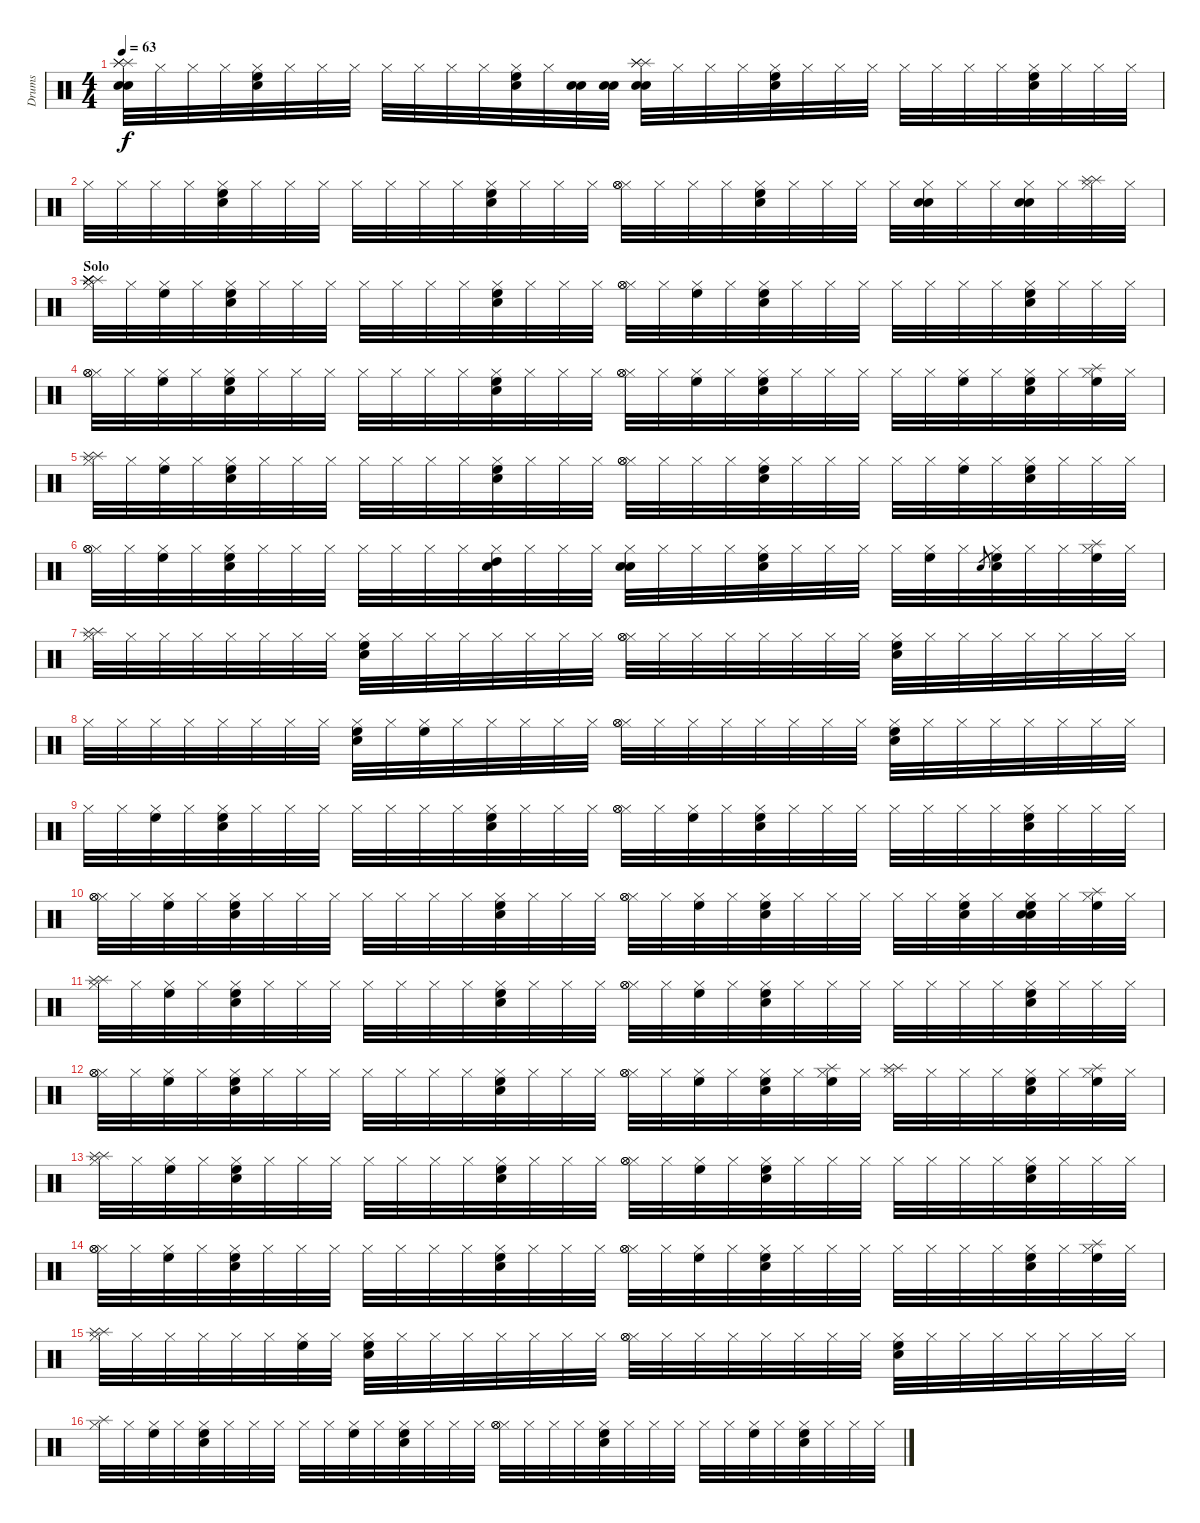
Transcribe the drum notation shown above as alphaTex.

\track ("Drums" "Drums") {instrument percussion}
\staff {score}
\articulation defaults
\ts (4 4)
\tempo 63
\clef neutral
\ks c
("Snare (hit) 2" "Snare (hit) 2" "Splash (hit)" "Splash (hit)" "Splash (hit)").32{dy f} "Hi-Hat (closed)".32 "Hi-Hat (closed)".32 "Hi-Hat (closed)".32 ("Hi-Hat (closed)" "Snare (hit) 2" "High Floor Tom (hit)").32 "Hi-Hat (closed)".32 "Hi-Hat (closed)".32 "Hi-Hat (closed)".32 "Hi-Hat (closed)".32 "Hi-Hat (closed)".32 "Hi-Hat (closed)".32 "Hi-Hat (closed)".32 ("Hi-Hat (closed)" "Snare (hit) 2" "High Floor Tom (hit)").32 "Hi-Hat (closed)".32 ("Snare (hit) 2" "Snare (hit) 2").32 ("Snare (hit) 2" "Snare (hit) 2").32 ("Snare (hit) 2" "Snare (hit) 2" "Splash (hit)" "Splash (hit)" "Splash (hit)").32 "Hi-Hat (closed)".32 "Hi-Hat (closed)".32 "Hi-Hat (closed)".32 ("Hi-Hat (closed)" "Snare (hit) 2" "High Floor Tom (hit)").32 "Hi-Hat (closed)".32 "Hi-Hat (closed)".32 "Hi-Hat (closed)".32 "Hi-Hat (closed)".32 "Hi-Hat (closed)".32 "Hi-Hat (closed)".32 "Hi-Hat (closed)".32 ("Hi-Hat (closed)" "Snare (hit) 2" "High Floor Tom (hit)").32 "Hi-Hat (closed)".32 "Hi-Hat (closed)".32 "Hi-Hat (closed)".32 |
"Hi-Hat (closed)".32 "Hi-Hat (closed)".32 "Hi-Hat (closed)".32 "Hi-Hat (closed)".32 ("Hi-Hat (closed)" "Snare (hit) 2" "High Floor Tom (hit)").32 "Hi-Hat (closed)".32 "Hi-Hat (closed)".32 "Hi-Hat (closed)".32 "Hi-Hat (closed)".32 "Hi-Hat (closed)".32 "Hi-Hat (closed)".32 "Hi-Hat (closed)".32 ("Hi-Hat (closed)" "Snare (hit) 2" "High Floor Tom (hit)").32 "Hi-Hat (closed)".32 "Hi-Hat (closed)".32 "Hi-Hat (closed)".32 ("Hi-Hat (closed)" "Hi-Hat (open)" "Hi-Hat (open)").32 "Hi-Hat (closed)".32 "Hi-Hat (closed)".32 "Hi-Hat (closed)".32 ("Hi-Hat (closed)" "Snare (hit) 2" "High Floor Tom (hit)").32 "Hi-Hat (closed)".32 "Hi-Hat (closed)".32 "Hi-Hat (closed)".32 "Hi-Hat (closed)".32 ("Hi-Hat (closed)" "Snare (hit) 2" "Snare (hit) 2").32 "Hi-Hat (closed)".32 "Hi-Hat (closed)".32 ("Hi-Hat (closed)" "Snare (hit) 2" "Snare (hit) 2").32 "Hi-Hat (closed)".32 ("Hi-Hat (closed)" "Splash (hit)" "Splash (hit)").32 "Hi-Hat (closed)".32 |
\section ("" "Solo")
("Hi-Hat (closed)" "Splash (hit)" "Splash (hit)" "Splash (hit)" "Splash (hit)" "Splash (hit)").32 "Hi-Hat (closed)".32 ("Hi-Hat (closed)" "High Floor Tom (hit)").32 "Hi-Hat (closed)".32 ("Hi-Hat (closed)" "Snare (hit) 2" "High Floor Tom (hit)").32 "Hi-Hat (closed)".32 "Hi-Hat (closed)".32 "Hi-Hat (closed)".32 "Hi-Hat (closed)".32 "Hi-Hat (closed)".32 "Hi-Hat (closed)".32 "Hi-Hat (closed)".32 ("Hi-Hat (closed)" "Snare (hit) 2" "High Floor Tom (hit)").32 "Hi-Hat (closed)".32 "Hi-Hat (closed)".32 "Hi-Hat (closed)".32 ("Hi-Hat (closed)" "Hi-Hat (open)" "Hi-Hat (open)").32 "Hi-Hat (closed)".32 ("Hi-Hat (closed)" "High Floor Tom (hit)").32 "Hi-Hat (closed)".32 ("Hi-Hat (closed)" "Snare (hit) 2" "High Floor Tom (hit)").32 "Hi-Hat (closed)".32 "Hi-Hat (closed)".32 "Hi-Hat (closed)".32 "Hi-Hat (closed)".32 "Hi-Hat (closed)".32 "Hi-Hat (closed)".32 "Hi-Hat (closed)".32 ("Hi-Hat (closed)" "Snare (hit) 2" "High Floor Tom (hit)").32 "Hi-Hat (closed)".32 "Hi-Hat (closed)".32 "Hi-Hat (closed)".32 |
("Hi-Hat (closed)" "Hi-Hat (open)" "Hi-Hat (open)").32 "Hi-Hat (closed)".32 ("Hi-Hat (closed)" "High Floor Tom (hit)").32 "Hi-Hat (closed)".32 ("Hi-Hat (closed)" "Snare (hit) 2" "High Floor Tom (hit)").32 "Hi-Hat (closed)".32 "Hi-Hat (closed)".32 "Hi-Hat (closed)".32 "Hi-Hat (closed)".32 "Hi-Hat (closed)".32 "Hi-Hat (closed)".32 "Hi-Hat (closed)".32 ("Hi-Hat (closed)" "Snare (hit) 2" "High Floor Tom (hit)").32 "Hi-Hat (closed)".32 "Hi-Hat (closed)".32 "Hi-Hat (closed)".32 ("Hi-Hat (closed)" "Hi-Hat (open)" "Hi-Hat (open)").32 "Hi-Hat (closed)".32 ("Hi-Hat (closed)" "High Floor Tom (hit)").32 "Hi-Hat (closed)".32 ("Hi-Hat (closed)" "Snare (hit) 2" "High Floor Tom (hit)").32 "Hi-Hat (closed)".32 "Hi-Hat (closed)".32 "Hi-Hat (closed)".32 "Hi-Hat (closed)".32 "Hi-Hat (closed)".32 ("Hi-Hat (closed)" "High Floor Tom (hit)").32 "Hi-Hat (closed)".32 ("Hi-Hat (closed)" "Snare (hit) 2" "High Floor Tom (hit)").32 "Hi-Hat (closed)".32 ("Hi-Hat (closed)" "Splash (hit)" "High Floor Tom (hit)").32 "Hi-Hat (closed)".32 |
("Hi-Hat (closed)" "Splash (hit)" "Splash (hit)").32 "Hi-Hat (closed)".32 ("Hi-Hat (closed)" "High Floor Tom (hit)").32 "Hi-Hat (closed)".32 ("Hi-Hat (closed)" "Snare (hit) 2" "High Floor Tom (hit)").32 "Hi-Hat (closed)".32 "Hi-Hat (closed)".32 "Hi-Hat (closed)".32 "Hi-Hat (closed)".32 "Hi-Hat (closed)".32 "Hi-Hat (closed)".32 "Hi-Hat (closed)".32 ("Hi-Hat (closed)" "Snare (hit) 2" "High Floor Tom (hit)").32 "Hi-Hat (closed)".32 "Hi-Hat (closed)".32 "Hi-Hat (closed)".32 ("Hi-Hat (closed)" "Hi-Hat (open)" "Hi-Hat (open)").32 "Hi-Hat (closed)".32 "Hi-Hat (closed)".32 "Hi-Hat (closed)".32 ("Hi-Hat (closed)" "Snare (hit) 2" "High Floor Tom (hit)").32 "Hi-Hat (closed)".32 "Hi-Hat (closed)".32 "Hi-Hat (closed)".32 "Hi-Hat (closed)".32 "Hi-Hat (closed)".32 ("Hi-Hat (closed)" "High Floor Tom (hit)").32 "Hi-Hat (closed)".32 ("Hi-Hat (closed)" "Snare (hit) 2" "High Floor Tom (hit)").32 "Hi-Hat (closed)".32 "Hi-Hat (closed)".32 "Hi-Hat (closed)".32 |
("Hi-Hat (closed)" "Hi-Hat (open)" "Hi-Hat (open)").32 "Hi-Hat (closed)".32 ("Hi-Hat (closed)" "High Floor Tom (hit)").32 "Hi-Hat (closed)".32 ("Hi-Hat (closed)" "Snare (hit) 2" "High Floor Tom (hit)").32 "Hi-Hat (closed)".32 "Hi-Hat (closed)".32 "Hi-Hat (closed)".32 "Hi-Hat (closed)".32 "Hi-Hat (closed)".32 "Hi-Hat (closed)".32 "Hi-Hat (closed)".32 ("Hi-Hat (closed)" "Snare (hit) 2" "High Tom (hit)").32 "Hi-Hat (closed)".32 "Hi-Hat (closed)".32 "Hi-Hat (closed)".32 ("Hi-Hat (closed)" "Snare (hit) 2" "Snare (hit) 2").32 "Hi-Hat (closed)".32 "Hi-Hat (closed)".32 "Hi-Hat (closed)".32 ("Hi-Hat (closed)" "Snare (hit) 2" "High Floor Tom (hit)").32 "Hi-Hat (closed)".32 "Hi-Hat (closed)".32 "Hi-Hat (closed)".32 "Hi-Hat (closed)".32 ("Hi-Hat (closed)" "High Floor Tom (hit)").32 "Hi-Hat (closed)".32 "Snare (hit) 2".8{gr} ("Hi-Hat (closed)" "Snare (hit) 2" "High Floor Tom (hit)").32 "Hi-Hat (closed)".32 "Hi-Hat (closed)".32 ("Hi-Hat (closed)" "Splash (hit)" "High Floor Tom (hit)").32 "Hi-Hat (closed)".32 |
("Hi-Hat (closed)" "Splash (hit)" "Splash (hit)").32 "Hi-Hat (closed)".32 "Hi-Hat (closed)".32 "Hi-Hat (closed)".32 "Hi-Hat (closed)".32 "Hi-Hat (closed)".32 "Hi-Hat (closed)".32 "Hi-Hat (closed)".32 ("Hi-Hat (closed)" "Snare (hit) 2" "High Floor Tom (hit)").32 "Hi-Hat (closed)".32 "Hi-Hat (closed)".32 "Hi-Hat (closed)".32 "Hi-Hat (closed)".32 "Hi-Hat (closed)".32 "Hi-Hat (closed)".32 "Hi-Hat (closed)".32 ("Hi-Hat (closed)" "Hi-Hat (open)" "Hi-Hat (open)").32 "Hi-Hat (closed)".32 "Hi-Hat (closed)".32 "Hi-Hat (closed)".32 "Hi-Hat (closed)".32 "Hi-Hat (closed)".32 "Hi-Hat (closed)".32 "Hi-Hat (closed)".32 ("Hi-Hat (closed)" "Snare (hit) 2" "High Floor Tom (hit)").32 "Hi-Hat (closed)".32 "Hi-Hat (closed)".32 "Hi-Hat (closed)".32 "Hi-Hat (closed)".32 "Hi-Hat (closed)".32 "Hi-Hat (closed)".32 "Hi-Hat (closed)".32 |
"Hi-Hat (closed)".32 "Hi-Hat (closed)".32 "Hi-Hat (closed)".32 "Hi-Hat (closed)".32 "Hi-Hat (closed)".32 "Hi-Hat (closed)".32 "Hi-Hat (closed)".32 "Hi-Hat (closed)".32 ("Hi-Hat (closed)" "Snare (hit) 2" "High Floor Tom (hit)").32 "Hi-Hat (closed)".32 ("Hi-Hat (closed)" "High Floor Tom (hit)").32 "Hi-Hat (closed)".32 "Hi-Hat (closed)".32 "Hi-Hat (closed)".32 "Hi-Hat (closed)".32 "Hi-Hat (closed)".32 ("Hi-Hat (closed)" "Hi-Hat (open)" "Hi-Hat (open)").32 "Hi-Hat (closed)".32 "Hi-Hat (closed)".32 "Hi-Hat (closed)".32 "Hi-Hat (closed)".32 "Hi-Hat (closed)".32 "Hi-Hat (closed)".32 "Hi-Hat (closed)".32 ("Hi-Hat (closed)" "Snare (hit) 2" "High Floor Tom (hit)").32 "Hi-Hat (closed)".32 "Hi-Hat (closed)".32 "Hi-Hat (closed)".32 "Hi-Hat (closed)".32 "Hi-Hat (closed)".32 "Hi-Hat (closed)".32 "Hi-Hat (closed)".32 |
"Hi-Hat (closed)".32 "Hi-Hat (closed)".32 ("Hi-Hat (closed)" "High Floor Tom (hit)").32 "Hi-Hat (closed)".32 ("Hi-Hat (closed)" "Snare (hit) 2" "High Floor Tom (hit)").32 "Hi-Hat (closed)".32 "Hi-Hat (closed)".32 "Hi-Hat (closed)".32 "Hi-Hat (closed)".32 "Hi-Hat (closed)".32 "Hi-Hat (closed)".32 "Hi-Hat (closed)".32 ("Hi-Hat (closed)" "Snare (hit) 2" "High Floor Tom (hit)").32 "Hi-Hat (closed)".32 "Hi-Hat (closed)".32 "Hi-Hat (closed)".32 ("Hi-Hat (closed)" "Hi-Hat (open)" "Hi-Hat (open)").32 "Hi-Hat (closed)".32 ("Hi-Hat (closed)" "High Floor Tom (hit)").32 "Hi-Hat (closed)".32 ("Hi-Hat (closed)" "Snare (hit) 2" "High Floor Tom (hit)").32 "Hi-Hat (closed)".32 "Hi-Hat (closed)".32 "Hi-Hat (closed)".32 "Hi-Hat (closed)".32 "Hi-Hat (closed)".32 "Hi-Hat (closed)".32 "Hi-Hat (closed)".32 ("Hi-Hat (closed)" "Snare (hit) 2" "High Floor Tom (hit)").32 "Hi-Hat (closed)".32 "Hi-Hat (closed)".32 "Hi-Hat (closed)".32 |
("Hi-Hat (closed)" "Hi-Hat (open)" "Hi-Hat (open)").32 "Hi-Hat (closed)".32 ("Hi-Hat (closed)" "High Floor Tom (hit)").32 "Hi-Hat (closed)".32 ("Hi-Hat (closed)" "Snare (hit) 2" "High Floor Tom (hit)").32 "Hi-Hat (closed)".32 "Hi-Hat (closed)".32 "Hi-Hat (closed)".32 "Hi-Hat (closed)".32 "Hi-Hat (closed)".32 "Hi-Hat (closed)".32 "Hi-Hat (closed)".32 ("Hi-Hat (closed)" "Snare (hit) 2" "High Floor Tom (hit)").32 "Hi-Hat (closed)".32 "Hi-Hat (closed)".32 "Hi-Hat (closed)".32 ("Hi-Hat (closed)" "Hi-Hat (open)" "Hi-Hat (open)").32 "Hi-Hat (closed)".32 ("Hi-Hat (closed)" "High Floor Tom (hit)").32 "Hi-Hat (closed)".32 ("Hi-Hat (closed)" "Snare (hit) 2" "High Floor Tom (hit)").32 "Hi-Hat (closed)".32 "Hi-Hat (closed)".32 "Hi-Hat (closed)".32 "Hi-Hat (closed)".32 "Hi-Hat (closed)".32 ("Hi-Hat (closed)" "Snare (hit) 2" "High Floor Tom (hit)").32 "Hi-Hat (closed)".32 ("Hi-Hat (closed)" "Snare (hit) 2" "Snare (hit) 2" "High Floor Tom (hit)").32 "Hi-Hat (closed)".32 ("Hi-Hat (closed)" "Splash (hit)" "High Floor Tom (hit)").32 "Hi-Hat (closed)".32 |
("Hi-Hat (closed)" "Splash (hit)" "Splash (hit)").32 "Hi-Hat (closed)".32 ("Hi-Hat (closed)" "High Floor Tom (hit)").32 "Hi-Hat (closed)".32 ("Hi-Hat (closed)" "Snare (hit) 2" "High Floor Tom (hit)").32 "Hi-Hat (closed)".32 "Hi-Hat (closed)".32 "Hi-Hat (closed)".32 "Hi-Hat (closed)".32 "Hi-Hat (closed)".32 "Hi-Hat (closed)".32 "Hi-Hat (closed)".32 ("Hi-Hat (closed)" "Snare (hit) 2" "High Floor Tom (hit)").32 "Hi-Hat (closed)".32 "Hi-Hat (closed)".32 "Hi-Hat (closed)".32 ("Hi-Hat (closed)" "Hi-Hat (open)" "Hi-Hat (open)").32 "Hi-Hat (closed)".32 ("Hi-Hat (closed)" "High Floor Tom (hit)").32 "Hi-Hat (closed)".32 ("Hi-Hat (closed)" "Snare (hit) 2" "High Floor Tom (hit)").32 "Hi-Hat (closed)".32 "Hi-Hat (closed)".32 "Hi-Hat (closed)".32 "Hi-Hat (closed)".32 "Hi-Hat (closed)".32 "Hi-Hat (closed)".32 "Hi-Hat (closed)".32 ("Hi-Hat (closed)" "Snare (hit) 2" "High Floor Tom (hit)").32 "Hi-Hat (closed)".32 "Hi-Hat (closed)".32 "Hi-Hat (closed)".32 |
("Hi-Hat (closed)" "Hi-Hat (open)" "Hi-Hat (open)").32 "Hi-Hat (closed)".32 ("Hi-Hat (closed)" "High Floor Tom (hit)").32 "Hi-Hat (closed)".32 ("Hi-Hat (closed)" "Snare (hit) 2" "High Floor Tom (hit)").32 "Hi-Hat (closed)".32 "Hi-Hat (closed)".32 "Hi-Hat (closed)".32 "Hi-Hat (closed)".32 "Hi-Hat (closed)".32 "Hi-Hat (closed)".32 "Hi-Hat (closed)".32 ("Hi-Hat (closed)" "Snare (hit) 2" "High Floor Tom (hit)").32 "Hi-Hat (closed)".32 "Hi-Hat (closed)".32 "Hi-Hat (closed)".32 ("Hi-Hat (closed)" "Hi-Hat (open)" "Hi-Hat (open)").32 "Hi-Hat (closed)".32 ("Hi-Hat (closed)" "High Floor Tom (hit)").32 "Hi-Hat (closed)".32 ("Hi-Hat (closed)" "Snare (hit) 2" "High Floor Tom (hit)").32 "Hi-Hat (closed)".32 ("Hi-Hat (closed)" "Splash (hit)" "High Floor Tom (hit)").32 "Hi-Hat (closed)".32 ("Hi-Hat (closed)" "Splash (hit)" "Splash (hit)").32 "Hi-Hat (closed)".32 "Hi-Hat (closed)".32 "Hi-Hat (closed)".32 ("Hi-Hat (closed)" "Snare (hit) 2" "High Floor Tom (hit)").32 "Hi-Hat (closed)".32 ("Hi-Hat (closed)" "Splash (hit)" "High Floor Tom (hit)").32 "Hi-Hat (closed)".32 |
("Hi-Hat (closed)" "Splash (hit)" "Splash (hit)").32 "Hi-Hat (closed)".32 ("Hi-Hat (closed)" "High Floor Tom (hit)").32 "Hi-Hat (closed)".32 ("Hi-Hat (closed)" "Snare (hit) 2" "High Floor Tom (hit)").32 "Hi-Hat (closed)".32 "Hi-Hat (closed)".32 "Hi-Hat (closed)".32 "Hi-Hat (closed)".32 "Hi-Hat (closed)".32 "Hi-Hat (closed)".32 "Hi-Hat (closed)".32 ("Hi-Hat (closed)" "Snare (hit) 2" "High Floor Tom (hit)").32 "Hi-Hat (closed)".32 "Hi-Hat (closed)".32 "Hi-Hat (closed)".32 ("Hi-Hat (closed)" "Hi-Hat (open)" "Hi-Hat (open)").32 "Hi-Hat (closed)".32 ("Hi-Hat (closed)" "High Floor Tom (hit)").32 "Hi-Hat (closed)".32 ("Hi-Hat (closed)" "Snare (hit) 2" "High Floor Tom (hit)").32 "Hi-Hat (closed)".32 "Hi-Hat (closed)".32 "Hi-Hat (closed)".32 "Hi-Hat (closed)".32 "Hi-Hat (closed)".32 "Hi-Hat (closed)".32 "Hi-Hat (closed)".32 ("Hi-Hat (closed)" "Snare (hit) 2" "High Floor Tom (hit)").32 "Hi-Hat (closed)".32 "Hi-Hat (closed)".32 "Hi-Hat (closed)".32 |
("Hi-Hat (closed)" "Hi-Hat (open)" "Hi-Hat (open)").32 "Hi-Hat (closed)".32 ("Hi-Hat (closed)" "High Floor Tom (hit)").32 "Hi-Hat (closed)".32 ("Hi-Hat (closed)" "Snare (hit) 2" "High Floor Tom (hit)").32 "Hi-Hat (closed)".32 "Hi-Hat (closed)".32 "Hi-Hat (closed)".32 "Hi-Hat (closed)".32 "Hi-Hat (closed)".32 "Hi-Hat (closed)".32 "Hi-Hat (closed)".32 ("Hi-Hat (closed)" "Snare (hit) 2" "High Floor Tom (hit)").32 "Hi-Hat (closed)".32 "Hi-Hat (closed)".32 "Hi-Hat (closed)".32 ("Hi-Hat (closed)" "Hi-Hat (open)" "Hi-Hat (open)").32 "Hi-Hat (closed)".32 ("Hi-Hat (closed)" "High Floor Tom (hit)").32 "Hi-Hat (closed)".32 ("Hi-Hat (closed)" "Snare (hit) 2" "High Floor Tom (hit)").32 "Hi-Hat (closed)".32 "Hi-Hat (closed)".32 "Hi-Hat (closed)".32 "Hi-Hat (closed)".32 "Hi-Hat (closed)".32 "Hi-Hat (closed)".32 "Hi-Hat (closed)".32 ("Hi-Hat (closed)" "Snare (hit) 2" "High Floor Tom (hit)").32 "Hi-Hat (closed)".32 ("Hi-Hat (closed)" "Splash (hit)" "High Floor Tom (hit)").32 "Hi-Hat (closed)".32 |
("Hi-Hat (closed)" "Splash (hit)" "Splash (hit)").32 "Hi-Hat (closed)".32 "Hi-Hat (closed)".32 "Hi-Hat (closed)".32 "Hi-Hat (closed)".32 "Hi-Hat (closed)".32 ("Hi-Hat (closed)" "High Floor Tom (hit)").32 "Hi-Hat (closed)".32 ("Hi-Hat (closed)" "Snare (hit) 2" "High Floor Tom (hit)").32 "Hi-Hat (closed)".32 "Hi-Hat (closed)".32 "Hi-Hat (closed)".32 "Hi-Hat (closed)".32 "Hi-Hat (closed)".32 "Hi-Hat (closed)".32 "Hi-Hat (closed)".32 ("Hi-Hat (closed)" "Hi-Hat (open)" "Hi-Hat (open)").32 "Hi-Hat (closed)".32 "Hi-Hat (closed)".32 "Hi-Hat (closed)".32 "Hi-Hat (closed)".32 "Hi-Hat (closed)".32 "Hi-Hat (closed)".32 "Hi-Hat (closed)".32 ("Hi-Hat (closed)" "Snare (hit) 2" "High Floor Tom (hit)").32 "Hi-Hat (closed)".32 "Hi-Hat (closed)".32 "Hi-Hat (closed)".32 "Hi-Hat (closed)".32 "Hi-Hat (closed)".32 "Hi-Hat (closed)".32 "Hi-Hat (closed)".32 |
("Hi-Hat (closed)" "Splash (hit)").32 "Hi-Hat (closed)".32 ("Hi-Hat (closed)" "High Floor Tom (hit)").32 "Hi-Hat (closed)".32 ("Hi-Hat (closed)" "Snare (hit) 2" "High Floor Tom (hit)").32 "Hi-Hat (closed)".32 "Hi-Hat (closed)".32 "Hi-Hat (closed)".32 "Hi-Hat (closed)".32 "Hi-Hat (closed)".32 ("Hi-Hat (closed)" "High Floor Tom (hit)").32 "Hi-Hat (closed)".32 ("Hi-Hat (closed)" "Snare (hit) 2" "High Floor Tom (hit)").32 "Hi-Hat (closed)".32 "Hi-Hat (closed)".32 "Hi-Hat (closed)".32 ("Hi-Hat (closed)" "Hi-Hat (open)" "Hi-Hat (open)").32 "Hi-Hat (closed)".32 "Hi-Hat (closed)".32 "Hi-Hat (closed)".32 ("Hi-Hat (closed)" "Snare (hit) 2" "High Floor Tom (hit)").32 "Hi-Hat (closed)".32 "Hi-Hat (closed)".32 "Hi-Hat (closed)".32 "Hi-Hat (closed)".32 "Hi-Hat (closed)".32 ("Hi-Hat (closed)" "High Floor Tom (hit)").32 "Hi-Hat (closed)".32 ("Hi-Hat (closed)" "Snare (hit) 2" "High Floor Tom (hit)").32 "Hi-Hat (closed)".32 "Hi-Hat (closed)".32 "Hi-Hat (closed)".32
